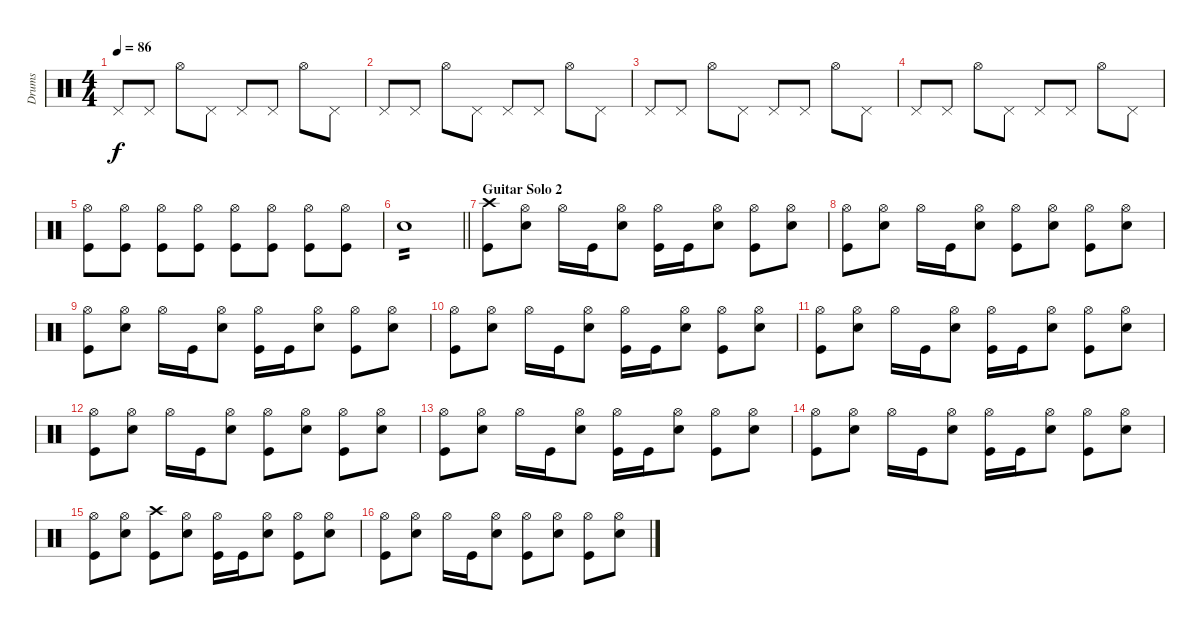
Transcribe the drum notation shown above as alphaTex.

\track ("Drums" "Drums") {instrument percussion}
\staff {score}
\articulation defaults
\ts (4 4)
\tempo 86
\clef neutral
\ks c "Pedal Hi-Hat (hit)".8{dy f} "Pedal Hi-Hat (hit)".8 "Hi-Hat (open)".8 "Pedal Hi-Hat (hit)".8 "Pedal Hi-Hat (hit)".8 "Pedal Hi-Hat (hit)".8 "Hi-Hat (open)".8 "Pedal Hi-Hat (hit)".8
|
"Pedal Hi-Hat (hit)".8 "Pedal Hi-Hat (hit)".8 "Hi-Hat (open)".8 "Pedal Hi-Hat (hit)".8 "Pedal Hi-Hat (hit)".8 "Pedal Hi-Hat (hit)".8 "Hi-Hat (open)".8 "Pedal Hi-Hat (hit)".8 |
"Pedal Hi-Hat (hit)".8 "Pedal Hi-Hat (hit)".8 "Hi-Hat (open)".8 "Pedal Hi-Hat (hit)".8 "Pedal Hi-Hat (hit)".8 "Pedal Hi-Hat (hit)".8 "Hi-Hat (open)".8 "Pedal Hi-Hat (hit)".8 |
"Pedal Hi-Hat (hit)".8 "Pedal Hi-Hat (hit)".8 "Hi-Hat (open)".8 "Pedal Hi-Hat (hit)".8 "Pedal Hi-Hat (hit)".8 "Pedal Hi-Hat (hit)".8 "Hi-Hat (open)".8 "Pedal Hi-Hat (hit)".8 |
("Hi-Hat (open)" "Kick (hit)").8 ("Hi-Hat (open)" "Kick (hit)").8 ("Hi-Hat (open)" "Kick (hit)").8 ("Hi-Hat (open)" "Kick (hit)").8 ("Hi-Hat (open)" "Kick (hit)").8 ("Hi-Hat (open)" "Kick (hit)").8 ("Hi-Hat (open)" "Kick (hit)").8 ("Hi-Hat (open)" "Kick (hit)").8 |
\barLineRight lightlight "Snare (hit) 2".1{tp 2}
|
\section ("" "Guitar Solo 2")
("Crash high (hit)" "Kick (hit)").8 ("Hi-Hat (open)" "Snare (hit) 2").8 "Hi-Hat (open)".16 "Kick (hit)".16 ("Hi-Hat (open)" "Snare (hit) 2").8 ("Hi-Hat (open)" "Kick (hit)").16 "Kick (hit)".16 ("Hi-Hat (open)" "Snare (hit) 2").8 ("Hi-Hat (open)" "Kick (hit)").8 ("Hi-Hat (open)" "Snare (hit) 2").8 |
("Hi-Hat (open)" "Kick (hit)").8 ("Hi-Hat (open)" "Snare (hit) 2").8 "Hi-Hat (open)".16 "Kick (hit)".16 ("Hi-Hat (open)" "Snare (hit) 2").8 ("Hi-Hat (open)" "Kick (hit)").8 ("Hi-Hat (open)" "Snare (hit) 2").8 ("Hi-Hat (open)" "Kick (hit)").8 ("Hi-Hat (open)" "Snare (hit) 2").8 |
("Hi-Hat (open)" "Kick (hit)").8 ("Hi-Hat (open)" "Snare (hit) 2").8 "Hi-Hat (open)".16 "Kick (hit)".16 ("Hi-Hat (open)" "Snare (hit) 2").8 ("Hi-Hat (open)" "Kick (hit)").16 "Kick (hit)".16 ("Hi-Hat (open)" "Snare (hit) 2").8 ("Hi-Hat (open)" "Kick (hit)").8 ("Hi-Hat (open)" "Snare (hit) 2").8 |
("Hi-Hat (open)" "Kick (hit)").8 ("Hi-Hat (open)" "Snare (hit) 2").8 "Hi-Hat (open)".16 "Kick (hit)".16 ("Hi-Hat (open)" "Snare (hit) 2").8 ("Hi-Hat (open)" "Kick (hit)").16 "Kick (hit)".16 ("Hi-Hat (open)" "Snare (hit) 2").8 ("Hi-Hat (open)" "Kick (hit)").8 ("Hi-Hat (open)" "Snare (hit) 2").8 |
("Hi-Hat (open)" "Kick (hit)").8 ("Hi-Hat (open)" "Snare (hit) 2").8 "Hi-Hat (open)".16 "Kick (hit)".16 ("Hi-Hat (open)" "Snare (hit) 2").8 ("Hi-Hat (open)" "Kick (hit)").16 "Kick (hit)".16 ("Hi-Hat (open)" "Snare (hit) 2").8 ("Hi-Hat (open)" "Kick (hit)").8 ("Hi-Hat (open)" "Snare (hit) 2").8 |
("Hi-Hat (open)" "Kick (hit)").8 ("Hi-Hat (open)" "Snare (hit) 2").8 "Hi-Hat (open)".16 "Kick (hit)".16 ("Hi-Hat (open)" "Snare (hit) 2").8 ("Hi-Hat (open)" "Kick (hit)").8 ("Hi-Hat (open)" "Snare (hit) 2").8 ("Hi-Hat (open)" "Kick (hit)").8 ("Hi-Hat (open)" "Snare (hit) 2").8 |
("Hi-Hat (open)" "Kick (hit)").8 ("Hi-Hat (open)" "Snare (hit) 2").8 "Hi-Hat (open)".16 "Kick (hit)".16 ("Hi-Hat (open)" "Snare (hit) 2").8 ("Hi-Hat (open)" "Kick (hit)").16 "Kick (hit)".16 ("Hi-Hat (open)" "Snare (hit) 2").8 ("Hi-Hat (open)" "Kick (hit)").8 ("Hi-Hat (open)" "Snare (hit) 2").8 |
("Hi-Hat (open)" "Kick (hit)").8 ("Hi-Hat (open)" "Snare (hit) 2").8 "Hi-Hat (open)".16 "Kick (hit)".16 ("Hi-Hat (open)" "Snare (hit) 2").8 ("Hi-Hat (open)" "Kick (hit)").16 "Kick (hit)".16 ("Hi-Hat (open)" "Snare (hit) 2").8 ("Hi-Hat (open)" "Kick (hit)").8 ("Hi-Hat (open)" "Snare (hit) 2").8 |
("Hi-Hat (open)" "Kick (hit)").8 ("Hi-Hat (open)" "Snare (hit) 2").8 ("Crash high (hit)" "Kick (hit)").8 ("Hi-Hat (open)" "Snare (hit) 2").8 ("Hi-Hat (open)" "Kick (hit)").16 "Kick (hit)".16 ("Hi-Hat (open)" "Snare (hit) 2").8 ("Hi-Hat (open)" "Kick (hit)").8 ("Hi-Hat (open)" "Snare (hit) 2").8 |
("Hi-Hat (open)" "Kick (hit)").8 ("Hi-Hat (open)" "Snare (hit) 2").8 "Hi-Hat (open)".16 "Kick (hit)".16 ("Hi-Hat (open)" "Snare (hit) 2").8 ("Hi-Hat (open)" "Kick (hit)").8 ("Hi-Hat (open)" "Snare (hit) 2").8 ("Hi-Hat (open)" "Kick (hit)").8 ("Hi-Hat (open)" "Snare (hit) 2").8
